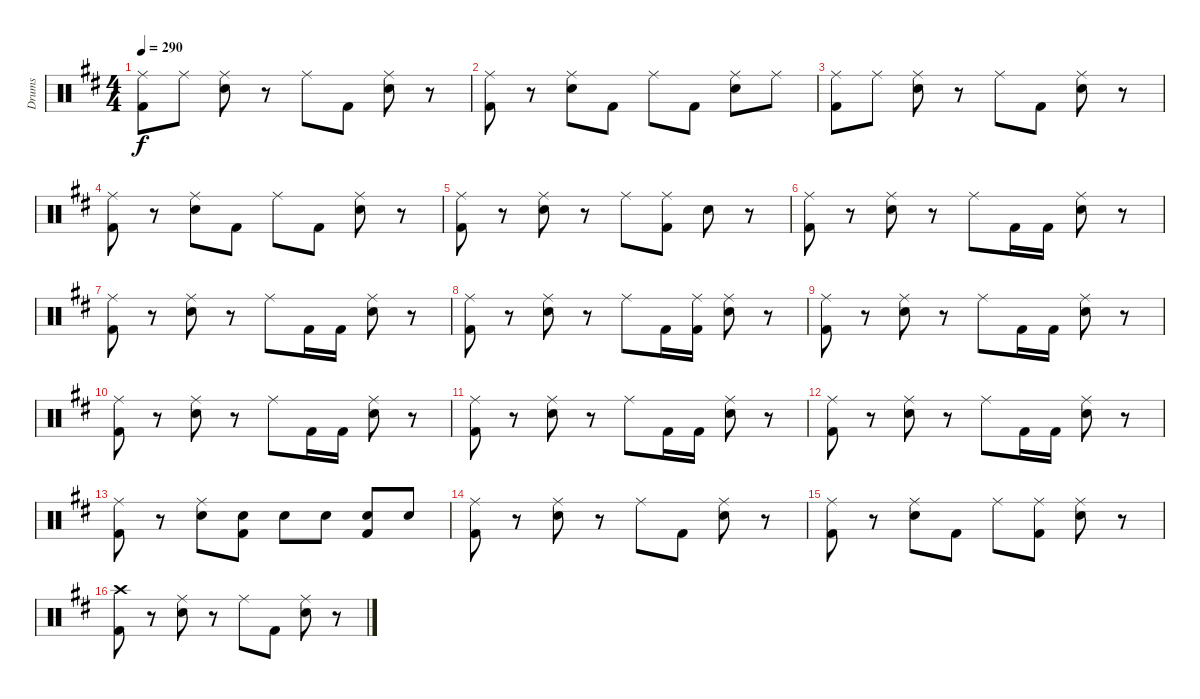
\track ("Drums" "Drums") {instrument percussion}
\staff {score}
\articulation defaults
\ts (4 4)
\tempo 290
\clef neutral
\ks d
("Ride (middle)" "Kick (hit) 2").8{dy f} "Ride (middle)".8 ("Ride (middle)" "Electric Snare (hit)").8 r.8 "Ride (middle)".8 "Kick (hit) 2".8 ("Ride (middle)" "Electric Snare (hit)").8 r.8 |
("Ride (middle)" "Kick (hit) 2").8 r.8 ("Ride (middle)" "Electric Snare (hit)").8 "Kick (hit) 2".8 "Ride (middle)".8 "Kick (hit) 2".8 ("Ride (middle)" "Electric Snare (hit)").8 "Ride (middle)".8 |
("Ride (middle)" "Kick (hit) 2").8 "Ride (middle)".8 ("Ride (middle)" "Electric Snare (hit)").8 r.8 "Ride (middle)".8 "Kick (hit) 2".8 ("Ride (middle)" "Electric Snare (hit)").8 r.8 |
("Ride (middle)" "Kick (hit) 2").8 r.8 ("Ride (middle)" "Electric Snare (hit)").8 "Kick (hit) 2".8 "Ride (middle)".8 "Kick (hit) 2".8 ("Ride (middle)" "Electric Snare (hit)").8 r.8 |
("Ride (middle)" "Kick (hit) 2").8 r.8 ("Ride (middle)" "Electric Snare (hit)").8 r.8 "Ride (middle)".8 ("Ride (middle)" "Kick (hit) 2").8 "Electric Snare (hit)".8 r.8 |
("Ride (middle)" "Kick (hit) 2").8 r.8 ("Ride (middle)" "Electric Snare (hit)").8 r.8 "Ride (middle)".8 "Kick (hit) 2".16 "Kick (hit) 2".16 ("Ride (middle)" "Electric Snare (hit)").8 r.8 |
("Ride (middle)" "Kick (hit) 2").8 r.8 ("Ride (middle)" "Electric Snare (hit)").8 r.8 "Ride (middle)".8 "Kick (hit) 2".16 "Kick (hit) 2".16 ("Ride (middle)" "Electric Snare (hit)").8 r.8 |
("Ride (middle)" "Kick (hit) 2").8 r.8 ("Ride (middle)" "Electric Snare (hit)").8 r.8 "Ride (middle)".8 "Kick (hit) 2".16 ("Ride (middle)" "Kick (hit) 2").16 ("Ride (middle)" "Electric Snare (hit)").8 r.8 |
("Ride (middle)" "Kick (hit) 2").8 r.8 ("Ride (middle)" "Electric Snare (hit)").8 r.8 "Ride (middle)".8 "Kick (hit) 2".16 "Kick (hit) 2".16 ("Ride (middle)" "Electric Snare (hit)").8 r.8 |
("Ride (middle)" "Kick (hit) 2").8 r.8 ("Ride (middle)" "Electric Snare (hit)").8 r.8 "Ride (middle)".8 "Kick (hit) 2".16 "Kick (hit) 2".16 ("Ride (middle)" "Electric Snare (hit)").8 r.8 |
("Ride (middle)" "Kick (hit) 2").8 r.8 ("Ride (middle)" "Electric Snare (hit)").8 r.8 "Ride (middle)".8 "Kick (hit) 2".16 "Kick (hit) 2".16 ("Ride (middle)" "Electric Snare (hit)").8 r.8 |
("Ride (middle)" "Kick (hit) 2").8 r.8 ("Ride (middle)" "Electric Snare (hit)").8 r.8 "Ride (middle)".8 "Kick (hit) 2".16 "Kick (hit) 2".16 ("Ride (middle)" "Electric Snare (hit)").8 r.8 |
("Ride (middle)" "Kick (hit) 2").8 r.8 ("Ride (middle)" "Electric Snare (hit)").8 ("Electric Snare (hit)" "Kick (hit) 2").8 "Electric Snare (hit)".8 "Electric Snare (hit)".8 ("Electric Snare (hit)" "Kick (hit) 2").8 "Electric Snare (hit)".8 |
("Ride (middle)" "Kick (hit) 2").8 r.8 ("Ride (middle)" "Electric Snare (hit)").8 r.8 "Ride (middle)".8 "Kick (hit) 2".8 ("Ride (middle)" "Electric Snare (hit)").8 r.8 |
("Ride (middle)" "Kick (hit) 2").8 r.8 ("Ride (middle)" "Electric Snare (hit)").8 "Kick (hit) 2".8 "Ride (middle)".8 ("Ride (middle)" "Kick (hit) 2").8 ("Ride (middle)" "Electric Snare (hit)").8 r.8 |
("Crash high (hit)" "Kick (hit) 2").8 r.8 ("Ride (middle)" "Electric Snare (hit)").8 r.8 "Ride (middle)".8 "Kick (hit) 2".8 ("Ride (middle)" "Electric Snare (hit)").8 r.8
